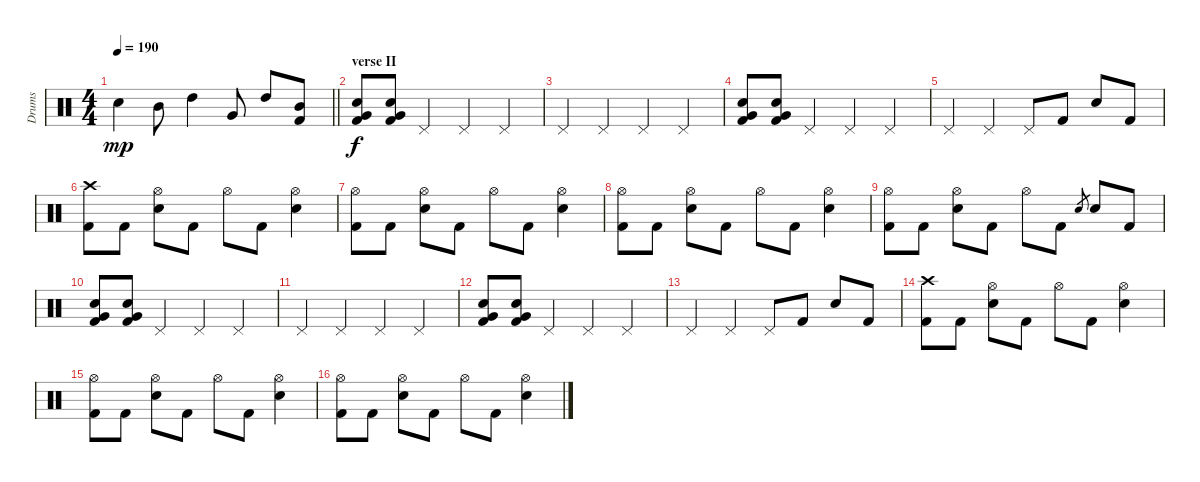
\track ("Drums" "Drums") {instrument percussion}
\staff {score}
\articulation defaults
\ts (4 4)
\tempo 190
\clef neutral
\barLineRight lightlight
\ks c "Snare (hit) 2".4{dy mp} "Mid Tom (hit)".8 "High Tom (hit)".4 "Very Low Tom (hit)".8 "High Tom (hit)".8
("Mid Tom (hit)" "Kick (hit) 2").8 |
\section ("" "verse II")
("Snare (hit) 2" "Very Low Tom (hit)" "Kick (hit) 2").8{dy f} ("Snare (hit) 2" "Very Low Tom (hit)" "Kick (hit) 2").8 "Pedal Hi-Hat (hit)".4 "Pedal Hi-Hat (hit)".4 "Pedal Hi-Hat (hit)".4 |
"Pedal Hi-Hat (hit)".4 "Pedal Hi-Hat (hit)".4 "Pedal Hi-Hat (hit)".4 "Pedal Hi-Hat (hit)".4 |
("Snare (hit) 2" "Very Low Tom (hit)" "Kick (hit) 2").8 ("Snare (hit) 2" "Very Low Tom (hit)" "Kick (hit) 2").8 "Pedal Hi-Hat (hit)".4 "Pedal Hi-Hat (hit)".4 "Pedal Hi-Hat (hit)".4 |
"Pedal Hi-Hat (hit)".4 "Pedal Hi-Hat (hit)".4 "Pedal Hi-Hat (hit)".8 "Kick (hit) 2".8 "Snare (hit) 2".8 "Kick (hit) 2".8 |
("Crash high (hit)" "Kick (hit) 2").8 "Kick (hit) 2".8 ("Hi-Hat (open)" "Snare (hit) 2").8 "Kick (hit) 2".8 "Hi-Hat (open)".8 "Kick (hit) 2".8 ("Hi-Hat (open)" "Snare (hit) 2").4 |
("Hi-Hat (open)" "Kick (hit) 2").8 "Kick (hit) 2".8 ("Hi-Hat (open)" "Snare (hit) 2").8 "Kick (hit) 2".8 "Hi-Hat (open)".8 "Kick (hit) 2".8 ("Hi-Hat (open)" "Snare (hit) 2").4 |
("Hi-Hat (open)" "Kick (hit) 2").8 "Kick (hit) 2".8 ("Hi-Hat (open)" "Snare (hit) 2").8 "Kick (hit) 2".8 "Hi-Hat (open)".8 "Kick (hit) 2".8 ("Hi-Hat (open)" "Snare (hit) 2").4 |
("Hi-Hat (open)" "Kick (hit) 2").8 "Kick (hit) 2".8 ("Hi-Hat (open)" "Snare (hit) 2").8 "Kick (hit) 2".8 "Hi-Hat (open)".8 "Kick (hit) 2".8 "Snare (hit) 2".8{gr} "Snare (hit) 2".8 "Kick (hit) 2".8 |
("Snare (hit) 2" "Very Low Tom (hit)" "Kick (hit) 2").8 ("Snare (hit) 2" "Very Low Tom (hit)" "Kick (hit) 2").8 "Pedal Hi-Hat (hit)".4 "Pedal Hi-Hat (hit)".4 "Pedal Hi-Hat (hit)".4 |
"Pedal Hi-Hat (hit)".4 "Pedal Hi-Hat (hit)".4 "Pedal Hi-Hat (hit)".4 "Pedal Hi-Hat (hit)".4 |
("Snare (hit) 2" "Very Low Tom (hit)" "Kick (hit) 2").8 ("Snare (hit) 2" "Very Low Tom (hit)" "Kick (hit) 2").8 "Pedal Hi-Hat (hit)".4 "Pedal Hi-Hat (hit)".4 "Pedal Hi-Hat (hit)".4 |
"Pedal Hi-Hat (hit)".4 "Pedal Hi-Hat (hit)".4 "Pedal Hi-Hat (hit)".8 "Kick (hit) 2".8 "Snare (hit) 2".8 "Kick (hit) 2".8 |
("Crash high (hit)" "Kick (hit) 2").8 "Kick (hit) 2".8 ("Hi-Hat (open)" "Snare (hit) 2").8 "Kick (hit) 2".8 "Hi-Hat (open)".8 "Kick (hit) 2".8 ("Hi-Hat (open)" "Snare (hit) 2").4 |
("Hi-Hat (open)" "Kick (hit) 2").8 "Kick (hit) 2".8 ("Hi-Hat (open)" "Snare (hit) 2").8 "Kick (hit) 2".8 "Hi-Hat (open)".8 "Kick (hit) 2".8 ("Hi-Hat (open)" "Snare (hit) 2").4 |
("Hi-Hat (open)" "Kick (hit) 2").8 "Kick (hit) 2".8 ("Hi-Hat (open)" "Snare (hit) 2").8 "Kick (hit) 2".8 "Hi-Hat (open)".8 "Kick (hit) 2".8 ("Hi-Hat (open)" "Snare (hit) 2").4
